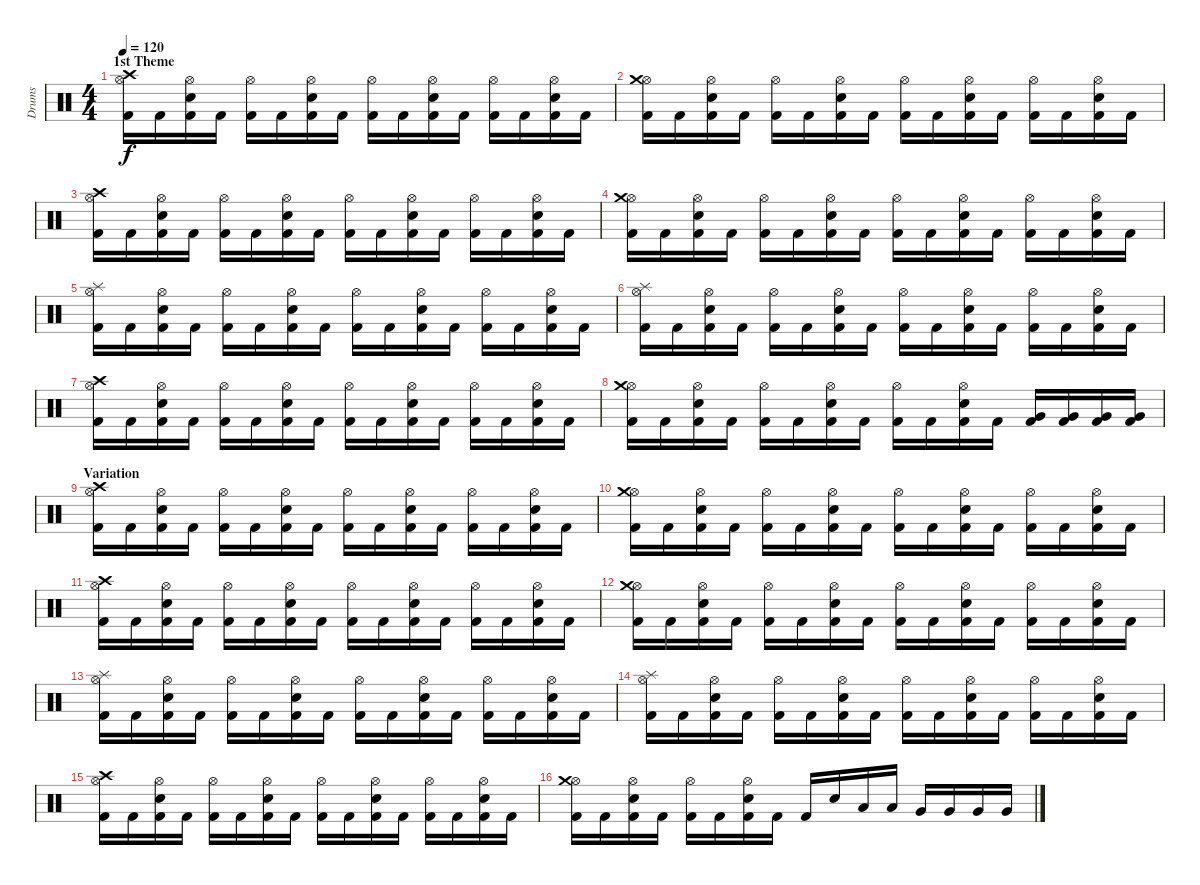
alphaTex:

\track ("Drums" "Drums") {instrument percussion}
\staff {score}
\articulation defaults
\ts (4 4)
\section ("" "1st Theme")
\tempo 120
\clef neutral
\ks c
("Hi-Hat (open)" "Kick (hit) 2" "Crash high (hit)").16{dy f} "Kick (hit) 2".16 ("Hi-Hat (open)" "Snare (hit) 2" "Kick (hit) 2").16 "Kick (hit) 2".16 ("Hi-Hat (open)" "Kick (hit) 2").16 "Kick (hit) 2".16 ("Hi-Hat (open)" "Snare (hit) 2" "Kick (hit) 2").16 "Kick (hit) 2".16 ("Hi-Hat (open)" "Kick (hit) 2").16 "Kick (hit) 2".16 ("Hi-Hat (open)" "Snare (hit) 2" "Kick (hit) 2").16 "Kick (hit) 2".16 ("Hi-Hat (open)" "Kick (hit) 2").16 "Kick (hit) 2".16 ("Hi-Hat (open)" "Snare (hit) 2" "Kick (hit) 2").16 "Kick (hit) 2".16 |
("Hi-Hat (open)" "Kick (hit) 2" "Crash medium (hit)").16 "Kick (hit) 2".16 ("Hi-Hat (open)" "Snare (hit) 2" "Kick (hit) 2").16 "Kick (hit) 2".16 ("Hi-Hat (open)" "Kick (hit) 2").16 "Kick (hit) 2".16 ("Hi-Hat (open)" "Snare (hit) 2" "Kick (hit) 2").16 "Kick (hit) 2".16 ("Hi-Hat (open)" "Kick (hit) 2").16 "Kick (hit) 2".16 ("Hi-Hat (open)" "Snare (hit) 2" "Kick (hit) 2").16 "Kick (hit) 2".16 ("Hi-Hat (open)" "Kick (hit) 2").16 "Kick (hit) 2".16 ("Hi-Hat (open)" "Snare (hit) 2" "Kick (hit) 2").16 "Kick (hit) 2".16 |
("Hi-Hat (open)" "Kick (hit) 2" "Crash high (hit)").16 "Kick (hit) 2".16 ("Hi-Hat (open)" "Snare (hit) 2" "Kick (hit) 2").16 "Kick (hit) 2".16 ("Hi-Hat (open)" "Kick (hit) 2").16 "Kick (hit) 2".16 ("Hi-Hat (open)" "Snare (hit) 2" "Kick (hit) 2").16 "Kick (hit) 2".16 ("Hi-Hat (open)" "Kick (hit) 2").16 "Kick (hit) 2".16 ("Hi-Hat (open)" "Snare (hit) 2" "Kick (hit) 2").16 "Kick (hit) 2".16 ("Hi-Hat (open)" "Kick (hit) 2").16 "Kick (hit) 2".16 ("Hi-Hat (open)" "Snare (hit) 2" "Kick (hit) 2").16 "Kick (hit) 2".16 |
("Hi-Hat (open)" "Kick (hit) 2" "Crash medium (hit)").16 "Kick (hit) 2".16 ("Hi-Hat (open)" "Snare (hit) 2" "Kick (hit) 2").16 "Kick (hit) 2".16 ("Hi-Hat (open)" "Kick (hit) 2").16 "Kick (hit) 2".16 ("Hi-Hat (open)" "Snare (hit) 2" "Kick (hit) 2").16 "Kick (hit) 2".16 ("Hi-Hat (open)" "Kick (hit) 2").16 "Kick (hit) 2".16 ("Hi-Hat (open)" "Snare (hit) 2" "Kick (hit) 2").16 "Kick (hit) 2".16 ("Hi-Hat (open)" "Kick (hit) 2").16 "Kick (hit) 2".16 ("Hi-Hat (open)" "Snare (hit) 2" "Kick (hit) 2").16 "Kick (hit) 2".16 |
("Hi-Hat (open)" "Kick (hit) 2" "Splash (hit)").16 "Kick (hit) 2".16 ("Hi-Hat (open)" "Snare (hit) 2" "Kick (hit) 2").16 "Kick (hit) 2".16 ("Hi-Hat (open)" "Kick (hit) 2").16 "Kick (hit) 2".16 ("Hi-Hat (open)" "Snare (hit) 2" "Kick (hit) 2").16 "Kick (hit) 2".16 ("Hi-Hat (open)" "Kick (hit) 2").16 "Kick (hit) 2".16 ("Hi-Hat (open)" "Snare (hit) 2" "Kick (hit) 2").16 "Kick (hit) 2".16 ("Hi-Hat (open)" "Kick (hit) 2").16 "Kick (hit) 2".16 ("Hi-Hat (open)" "Snare (hit) 2" "Kick (hit) 2").16 "Kick (hit) 2".16 |
("Hi-Hat (open)" "Kick (hit) 2" "Splash (hit)").16 "Kick (hit) 2".16 ("Hi-Hat (open)" "Snare (hit) 2" "Kick (hit) 2").16 "Kick (hit) 2".16 ("Hi-Hat (open)" "Kick (hit) 2").16 "Kick (hit) 2".16 ("Hi-Hat (open)" "Snare (hit) 2" "Kick (hit) 2").16 "Kick (hit) 2".16 ("Hi-Hat (open)" "Kick (hit) 2").16 "Kick (hit) 2".16 ("Hi-Hat (open)" "Snare (hit) 2" "Kick (hit) 2").16 "Kick (hit) 2".16 ("Hi-Hat (open)" "Kick (hit) 2").16 "Kick (hit) 2".16 ("Hi-Hat (open)" "Snare (hit) 2" "Kick (hit) 2").16 "Kick (hit) 2".16 |
("Hi-Hat (open)" "Kick (hit) 2" "Crash high (hit)").16 "Kick (hit) 2".16 ("Hi-Hat (open)" "Snare (hit) 2" "Kick (hit) 2").16 "Kick (hit) 2".16 ("Hi-Hat (open)" "Kick (hit) 2").16 "Kick (hit) 2".16 ("Hi-Hat (open)" "Snare (hit) 2" "Kick (hit) 2").16 "Kick (hit) 2".16 ("Hi-Hat (open)" "Kick (hit) 2").16 "Kick (hit) 2".16 ("Hi-Hat (open)" "Snare (hit) 2" "Kick (hit) 2").16 "Kick (hit) 2".16 ("Hi-Hat (open)" "Kick (hit) 2").16 "Kick (hit) 2".16 ("Hi-Hat (open)" "Snare (hit) 2" "Kick (hit) 2").16 "Kick (hit) 2".16 |
("Hi-Hat (open)" "Kick (hit) 2" "Crash medium (hit)").16 "Kick (hit) 2".16 ("Hi-Hat (open)" "Snare (hit) 2" "Kick (hit) 2").16 "Kick (hit) 2".16 ("Hi-Hat (open)" "Kick (hit) 2").16 "Kick (hit) 2".16 ("Hi-Hat (open)" "Snare (hit) 2" "Kick (hit) 2").16 "Kick (hit) 2".16 ("Hi-Hat (open)" "Kick (hit) 2").16 "Kick (hit) 2".16 ("Hi-Hat (open)" "Snare (hit) 2" "Kick (hit) 2").16 "Kick (hit) 2".16 ("Very Low Tom (hit)" "Kick (hit) 2").16 ("Very Low Tom (hit)" "Kick (hit) 2").16 ("Very Low Tom (hit)" "Kick (hit) 2").16 ("Very Low Tom (hit)" "Kick (hit) 2").16 |
\section ("" "Variation")
("Hi-Hat (open)" "Kick (hit) 2" "Crash high (hit)").16 "Kick (hit) 2".16 ("Hi-Hat (open)" "Snare (hit) 2" "Kick (hit) 2").16 "Kick (hit) 2".16 ("Hi-Hat (open)" "Kick (hit) 2").16 "Kick (hit) 2".16 ("Hi-Hat (open)" "Snare (hit) 2" "Kick (hit) 2").16 "Kick (hit) 2".16 ("Hi-Hat (open)" "Kick (hit) 2").16 "Kick (hit) 2".16 ("Hi-Hat (open)" "Snare (hit) 2" "Kick (hit) 2").16 "Kick (hit) 2".16 ("Hi-Hat (open)" "Kick (hit) 2").16 "Kick (hit) 2".16 ("Hi-Hat (open)" "Snare (hit) 2" "Kick (hit) 2").16 "Kick (hit) 2".16 |
("Hi-Hat (open)" "Kick (hit) 2" "Crash medium (hit)").16 "Kick (hit) 2".16 ("Hi-Hat (open)" "Snare (hit) 2" "Kick (hit) 2").16 "Kick (hit) 2".16 ("Hi-Hat (open)" "Kick (hit) 2").16 "Kick (hit) 2".16 ("Hi-Hat (open)" "Snare (hit) 2" "Kick (hit) 2").16 "Kick (hit) 2".16 ("Hi-Hat (open)" "Kick (hit) 2").16 "Kick (hit) 2".16 ("Hi-Hat (open)" "Snare (hit) 2" "Kick (hit) 2").16 "Kick (hit) 2".16 ("Hi-Hat (open)" "Kick (hit) 2").16 "Kick (hit) 2".16 ("Hi-Hat (open)" "Snare (hit) 2" "Kick (hit) 2").16 "Kick (hit) 2".16 |
("Hi-Hat (open)" "Kick (hit) 2" "Crash high (hit)").16 "Kick (hit) 2".16 ("Hi-Hat (open)" "Snare (hit) 2" "Kick (hit) 2").16 "Kick (hit) 2".16 ("Hi-Hat (open)" "Kick (hit) 2").16 "Kick (hit) 2".16 ("Hi-Hat (open)" "Snare (hit) 2" "Kick (hit) 2").16 "Kick (hit) 2".16 ("Hi-Hat (open)" "Kick (hit) 2").16 "Kick (hit) 2".16 ("Hi-Hat (open)" "Snare (hit) 2" "Kick (hit) 2").16 "Kick (hit) 2".16 ("Hi-Hat (open)" "Kick (hit) 2").16 "Kick (hit) 2".16 ("Hi-Hat (open)" "Snare (hit) 2" "Kick (hit) 2").16 "Kick (hit) 2".16 |
("Hi-Hat (open)" "Kick (hit) 2" "Crash medium (hit)").16 "Kick (hit) 2".16 ("Hi-Hat (open)" "Snare (hit) 2" "Kick (hit) 2").16 "Kick (hit) 2".16 ("Hi-Hat (open)" "Kick (hit) 2").16 "Kick (hit) 2".16 ("Hi-Hat (open)" "Snare (hit) 2" "Kick (hit) 2").16 "Kick (hit) 2".16 ("Hi-Hat (open)" "Kick (hit) 2").16 "Kick (hit) 2".16 ("Hi-Hat (open)" "Snare (hit) 2" "Kick (hit) 2").16 "Kick (hit) 2".16 ("Hi-Hat (open)" "Kick (hit) 2").16 "Kick (hit) 2".16 ("Hi-Hat (open)" "Snare (hit) 2" "Kick (hit) 2").16 "Kick (hit) 2".16 |
("Hi-Hat (open)" "Kick (hit) 2" "Splash (hit)").16 "Kick (hit) 2".16 ("Hi-Hat (open)" "Snare (hit) 2" "Kick (hit) 2").16 "Kick (hit) 2".16 ("Hi-Hat (open)" "Kick (hit) 2").16 "Kick (hit) 2".16 ("Hi-Hat (open)" "Snare (hit) 2" "Kick (hit) 2").16 "Kick (hit) 2".16 ("Hi-Hat (open)" "Kick (hit) 2").16 "Kick (hit) 2".16 ("Hi-Hat (open)" "Snare (hit) 2" "Kick (hit) 2").16 "Kick (hit) 2".16 ("Hi-Hat (open)" "Kick (hit) 2").16 "Kick (hit) 2".16 ("Hi-Hat (open)" "Snare (hit) 2" "Kick (hit) 2").16 "Kick (hit) 2".16 |
("Hi-Hat (open)" "Kick (hit) 2" "Splash (hit)").16 "Kick (hit) 2".16 ("Hi-Hat (open)" "Snare (hit) 2" "Kick (hit) 2").16 "Kick (hit) 2".16 ("Hi-Hat (open)" "Kick (hit) 2").16 "Kick (hit) 2".16 ("Hi-Hat (open)" "Snare (hit) 2" "Kick (hit) 2").16 "Kick (hit) 2".16 ("Hi-Hat (open)" "Kick (hit) 2").16 "Kick (hit) 2".16 ("Hi-Hat (open)" "Snare (hit) 2" "Kick (hit) 2").16 "Kick (hit) 2".16 ("Hi-Hat (open)" "Kick (hit) 2").16 "Kick (hit) 2".16 ("Hi-Hat (open)" "Snare (hit) 2" "Kick (hit) 2").16 "Kick (hit) 2".16 |
("Hi-Hat (open)" "Kick (hit) 2" "Crash high (hit)").16 "Kick (hit) 2".16 ("Hi-Hat (open)" "Snare (hit) 2" "Kick (hit) 2").16 "Kick (hit) 2".16 ("Hi-Hat (open)" "Kick (hit) 2").16 "Kick (hit) 2".16 ("Hi-Hat (open)" "Snare (hit) 2" "Kick (hit) 2").16 "Kick (hit) 2".16 ("Hi-Hat (open)" "Kick (hit) 2").16 "Kick (hit) 2".16 ("Hi-Hat (open)" "Snare (hit) 2" "Kick (hit) 2").16 "Kick (hit) 2".16 ("Hi-Hat (open)" "Kick (hit) 2").16 "Kick (hit) 2".16 ("Hi-Hat (open)" "Snare (hit) 2" "Kick (hit) 2").16 "Kick (hit) 2".16 |
("Hi-Hat (open)" "Kick (hit) 2" "Crash medium (hit)").16 "Kick (hit) 2".16 ("Hi-Hat (open)" "Snare (hit) 2" "Kick (hit) 2").16 "Kick (hit) 2".16 ("Hi-Hat (open)" "Kick (hit) 2").16 "Kick (hit) 2".16 ("Hi-Hat (open)" "Snare (hit) 2" "Kick (hit) 2").16 "Kick (hit) 2".16 "Kick (hit) 2".16 "Snare (hit) 2".16 "Low Tom (hit)".16 "Low Tom (hit)".16 "Very Low Tom (hit)".16 "Very Low Tom (hit)".16 "Very Low Tom (hit)".16 "Very Low Tom (hit)".16
